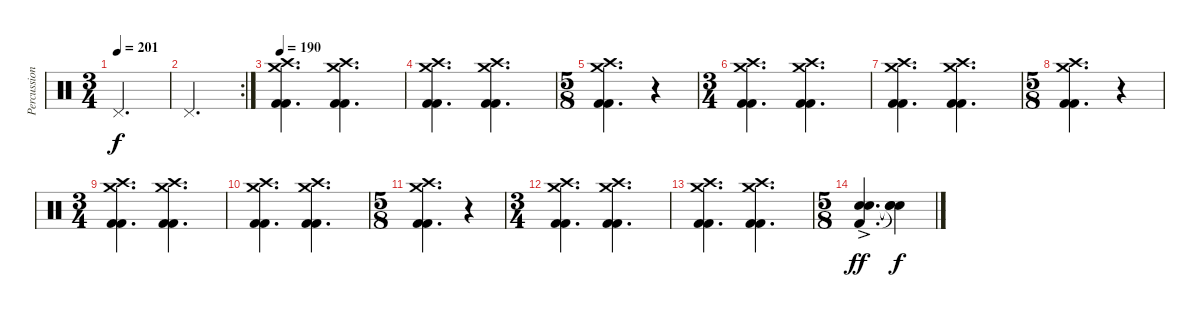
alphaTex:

\track ("Percussioni" "Percussion") {instrument percussion}
\staff {score}
\articulation defaults
\ts (3 4)
\tempo 201
\clef neutral
\ks c "Pedal Hi-Hat (hit)".2{d dy f}
|
\rc 2 "Pedal Hi-Hat (hit)".2{d}
|
\tempo 190
("Crash medium (hit)" "Crash high (hit)" "Kick (hit) 2" "Kick (hit) 2").4{d} ("Crash medium (hit)" "Crash high (hit)" "Kick (hit) 2" "Kick (hit) 2").4{d} |
("Crash medium (hit)" "Crash high (hit)" "Kick (hit) 2" "Kick (hit) 2").4{d} ("Crash medium (hit)" "Crash high (hit)" "Kick (hit) 2" "Kick (hit) 2").4{d} |
\ts (5 8)
("Crash medium (hit)" "Crash high (hit)" "Kick (hit) 2" "Kick (hit) 2").4{d} r.4 |
\ts (3 4)
("Crash medium (hit)" "Crash high (hit)" "Kick (hit) 2" "Kick (hit) 2").4{d} ("Crash medium (hit)" "Crash high (hit)" "Kick (hit) 2" "Kick (hit) 2").4{d} |
("Crash medium (hit)" "Crash high (hit)" "Kick (hit) 2" "Kick (hit) 2").4{d} ("Crash medium (hit)" "Crash high (hit)" "Kick (hit) 2" "Kick (hit) 2").4{d} |
\ts (5 8)
("Crash medium (hit)" "Crash high (hit)" "Kick (hit) 2" "Kick (hit) 2").4{d} r.4 |
\ts (3 4)
("Crash medium (hit)" "Crash high (hit)" "Kick (hit) 2" "Kick (hit) 2").4{d} ("Crash medium (hit)" "Crash high (hit)" "Kick (hit) 2" "Kick (hit) 2").4{d} |
("Crash medium (hit)" "Crash high (hit)" "Kick (hit) 2" "Kick (hit) 2").4{d} ("Crash medium (hit)" "Crash high (hit)" "Kick (hit) 2" "Kick (hit) 2").4{d} |
\ts (5 8)
("Crash medium (hit)" "Crash high (hit)" "Kick (hit) 2" "Kick (hit) 2").4{d} r.4 |
\ts (3 4)
("Crash medium (hit)" "Crash high (hit)" "Kick (hit) 2" "Kick (hit) 2").4{d} ("Crash medium (hit)" "Crash high (hit)" "Kick (hit) 2" "Kick (hit) 2").4{d} |
("Crash medium (hit)" "Crash high (hit)" "Kick (hit) 2" "Kick (hit) 2").4{d} ("Crash medium (hit)" "Crash high (hit)" "Kick (hit) 2" "Kick (hit) 2").4{d} |
\ts (5 8)
("Electric Snare (hit)"{ac} "Electric Snare (hit)"{ac} "Kick (hit) 2").4{d dy ff} ("Snare (hit)"{t} "Snare (hit)"{t} "Snare (hit)"{t}).4{dy f}
